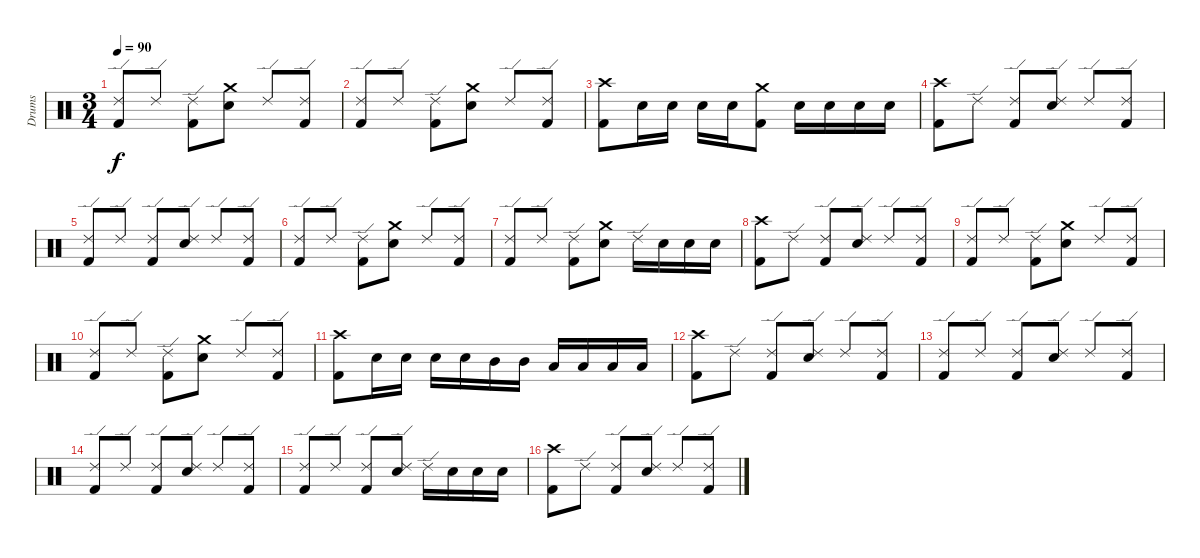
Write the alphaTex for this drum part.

\track ("Drums" "Drums") {instrument percussion}
\staff {score}
\articulation defaults
\ts (3 4)
\tempo 90
\clef neutral
\ks c
("Ride (edge) 2" "Kick (hit) 2").8{dy f} "Ride (edge) 2".8 ("Ride (edge) 2" "Kick (hit) 2").8 ("Crash medium (hit)" "Electric Snare (hit)").8 "Ride (edge) 2".8 ("Ride (edge) 2" "Kick (hit) 2").8 |
("Ride (edge) 2" "Kick (hit) 2").8 "Ride (edge) 2".8 ("Ride (edge) 2" "Kick (hit) 2").8 ("Crash medium (hit)" "Electric Snare (hit)").8 "Ride (edge) 2".8 ("Ride (edge) 2" "Kick (hit) 2").8 |
("Crash high (hit)" "Kick (hit) 2").8 "Electric Snare (hit)".16 "Electric Snare (hit)".16 "Electric Snare (hit)".16 "Electric Snare (hit)".16 ("Crash medium (hit)" "Kick (hit) 2").8 "Electric Snare (hit)".16 "Electric Snare (hit)".16 "Electric Snare (hit)".16 "Electric Snare (hit)".16 |
("Crash high (hit)" "Kick (hit) 2").8 "Ride (edge) 2".8 ("Ride (edge) 2" "Kick (hit) 2").8 ("Ride (edge) 2" "Electric Snare (hit)").8 "Ride (edge) 2".8 ("Ride (edge) 2" "Kick (hit) 2").8 |
("Ride (edge) 2" "Kick (hit) 2").8 "Ride (edge) 2".8 ("Ride (edge) 2" "Kick (hit) 2").8 ("Ride (edge) 2" "Electric Snare (hit)").8 "Ride (edge) 2".8 ("Ride (edge) 2" "Kick (hit) 2").8 |
("Ride (edge) 2" "Kick (hit) 2").8 "Ride (edge) 2".8 ("Ride (edge) 2" "Kick (hit) 2").8 ("Crash medium (hit)" "Electric Snare (hit)").8 "Ride (edge) 2".8 ("Ride (edge) 2" "Kick (hit) 2").8 |
("Ride (edge) 2" "Kick (hit) 2").8 "Ride (edge) 2".8 ("Ride (edge) 2" "Kick (hit) 2").8 ("Crash medium (hit)" "Electric Snare (hit)").8 "Ride (edge) 2".16 "Electric Snare (hit)".16 "Electric Snare (hit)".16 "Electric Snare (hit)".16 |
("Crash high (hit)" "Kick (hit) 2").8 "Ride (edge) 2".8 ("Ride (edge) 2" "Kick (hit) 2").8 ("Ride (edge) 2" "Electric Snare (hit)").8 "Ride (edge) 2".8 ("Ride (edge) 2" "Kick (hit) 2").8 |
("Ride (edge) 2" "Kick (hit) 2").8 "Ride (edge) 2".8 ("Ride (edge) 2" "Kick (hit) 2").8 ("Crash medium (hit)" "Electric Snare (hit)").8 "Ride (edge) 2".8 ("Ride (edge) 2" "Kick (hit) 2").8 |
("Ride (edge) 2" "Kick (hit) 2").8 "Ride (edge) 2".8 ("Ride (edge) 2" "Kick (hit) 2").8 ("Crash medium (hit)" "Electric Snare (hit)").8 "Ride (edge) 2".8 ("Ride (edge) 2" "Kick (hit) 2").8 |
("Crash high (hit)" "Kick (hit) 2").8 "Electric Snare (hit)".16 "Electric Snare (hit)".16 "Electric Snare (hit)".16 "Electric Snare (hit)".16 "Mid Tom (hit)".16 "Mid Tom (hit)".16 "Low Tom (hit)".16 "Low Tom (hit)".16 "Low Tom (hit)".16 "Low Tom (hit)".16 |
("Crash high (hit)" "Kick (hit) 2").8 "Ride (edge) 2".8 ("Ride (edge) 2" "Kick (hit) 2").8 ("Ride (edge) 2" "Electric Snare (hit)").8 "Ride (edge) 2".8 ("Ride (edge) 2" "Kick (hit) 2").8 |
("Ride (edge) 2" "Kick (hit) 2").8 "Ride (edge) 2".8 ("Ride (edge) 2" "Kick (hit) 2").8 ("Ride (edge) 2" "Electric Snare (hit)").8 "Ride (edge) 2".8 ("Ride (edge) 2" "Kick (hit) 2").8 |
("Ride (edge) 2" "Kick (hit) 2").8 "Ride (edge) 2".8 ("Ride (edge) 2" "Kick (hit) 2").8 ("Ride (edge) 2" "Electric Snare (hit)").8 "Ride (edge) 2".8 ("Ride (edge) 2" "Kick (hit) 2").8 |
("Ride (edge) 2" "Kick (hit) 2").8 "Ride (edge) 2".8 ("Ride (edge) 2" "Kick (hit) 2").8 ("Ride (edge) 2" "Electric Snare (hit)").8 "Ride (edge) 2".16 "Electric Snare (hit)".16 "Electric Snare (hit)".16 "Electric Snare (hit)".16 |
("Crash high (hit)" "Kick (hit) 2").8 "Ride (edge) 2".8 ("Ride (edge) 2" "Kick (hit) 2").8 ("Ride (edge) 2" "Electric Snare (hit)").8 "Ride (edge) 2".8 ("Ride (edge) 2" "Kick (hit) 2").8
